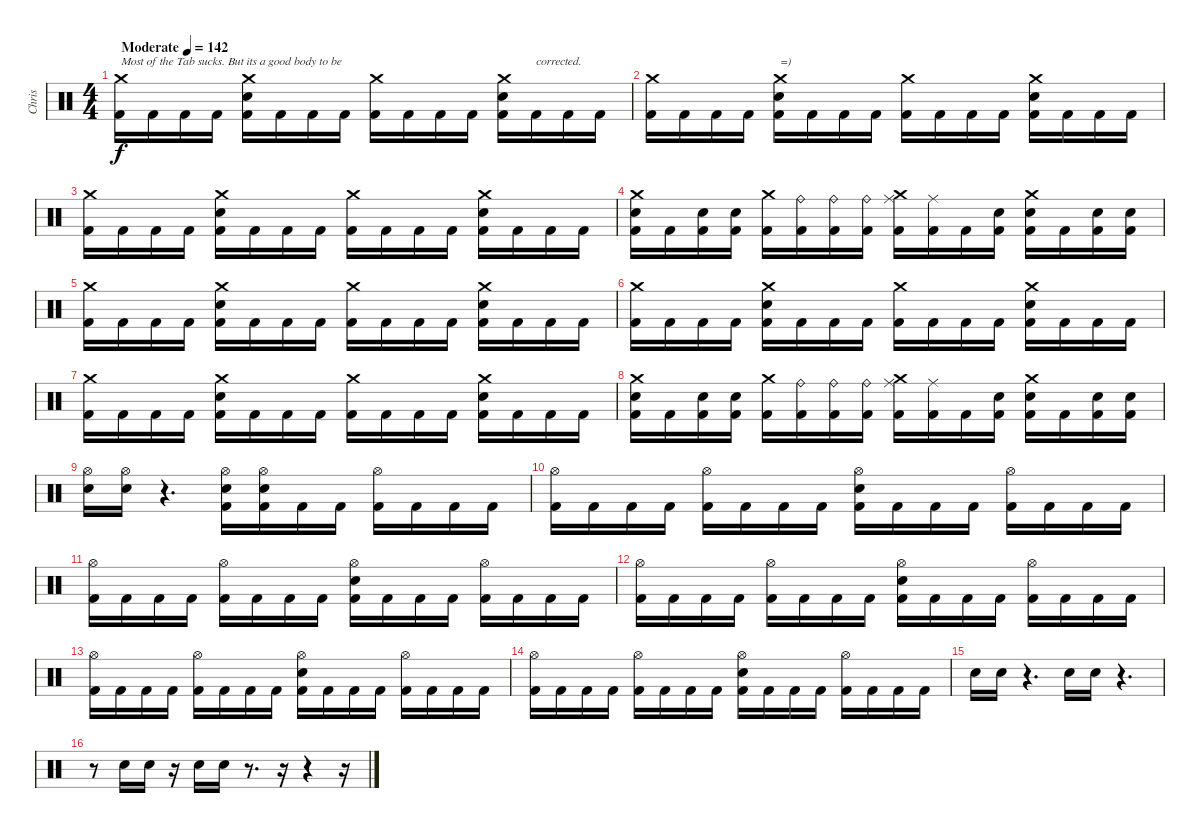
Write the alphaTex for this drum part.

\track ("Chris" "Chris") {instrument percussion}
\staff {score}
\articulation defaults
\ts (4 4)
\tempo (142 "Moderate")
\clef neutral
\ks c
("Crash medium (hit)" "Kick (hit) 2").16{txt "Most of the Tab sucks. But its a good body to be" dy f} "Kick (hit) 2".16 "Kick (hit) 2".16 "Kick (hit) 2".16 ("Crash medium (hit)" "Snare (hit) 2" "Kick (hit) 2").16 "Kick (hit) 2".16 "Kick (hit) 2".16 "Kick (hit) 2".16 ("Crash medium (hit)" "Kick (hit) 2").16 "Kick (hit) 2".16 "Kick (hit) 2".16 "Kick (hit) 2".16 ("Crash medium (hit)" "Snare (hit) 2" "Kick (hit) 2").16 "Kick (hit) 2".16{txt "corrected."} "Kick (hit) 2".16 "Kick (hit) 2".16 |
("Crash medium (hit)" "Kick (hit) 2").16 "Kick (hit) 2".16 "Kick (hit) 2".16 "Kick (hit) 2".16 ("Crash medium (hit)" "Snare (hit) 2" "Kick (hit) 2").16{txt "=)"} "Kick (hit) 2".16 "Kick (hit) 2".16 "Kick (hit) 2".16 ("Crash medium (hit)" "Kick (hit) 2").16 "Kick (hit) 2".16 "Kick (hit) 2".16 "Kick (hit) 2".16 ("Crash medium (hit)" "Snare (hit) 2" "Kick (hit) 2").16 "Kick (hit) 2".16 "Kick (hit) 2".16 "Kick (hit) 2".16 |
("Crash medium (hit)" "Kick (hit) 2").16 "Kick (hit) 2".16 "Kick (hit) 2".16 "Kick (hit) 2".16 ("Crash medium (hit)" "Snare (hit) 2" "Kick (hit) 2").16 "Kick (hit) 2".16 "Kick (hit) 2".16 "Kick (hit) 2".16 ("Crash medium (hit)" "Kick (hit) 2").16 "Kick (hit) 2".16 "Kick (hit) 2".16 "Kick (hit) 2".16 ("Crash medium (hit)" "Snare (hit) 2" "Kick (hit) 2").16 "Kick (hit) 2".16 "Kick (hit) 2".16 "Kick (hit) 2".16 |
("Crash medium (hit)" "Snare (hit) 2" "Kick (hit) 2").16 "Kick (hit) 2".16 ("Snare (hit) 2" "Kick (hit) 2").16 ("Snare (hit) 2" "Kick (hit) 2").16 ("Crash medium (hit)" "Kick (hit) 2").16 ("Ride (bell)" "Kick (hit) 2").16 ("Ride (bell)" "Kick (hit) 2").16 ("Ride (bell)" "Kick (hit) 2").16 ("Crash medium (hit)" "Ride (middle)" "Kick (hit) 2").16 ("Ride (middle)" "Kick (hit) 2").16 "Kick (hit) 2".16 ("Snare (hit) 2" "Kick (hit) 2").16 ("Crash medium (hit)" "Snare (hit) 2" "Kick (hit) 2").16 "Kick (hit) 2".16 ("Snare (hit) 2" "Kick (hit) 2").16 ("Snare (hit) 2" "Kick (hit) 2").16 |
("Crash medium (hit)" "Kick (hit) 2").16 "Kick (hit) 2".16 "Kick (hit) 2".16 "Kick (hit) 2".16 ("Crash medium (hit)" "Snare (hit) 2" "Kick (hit) 2").16 "Kick (hit) 2".16 "Kick (hit) 2".16 "Kick (hit) 2".16 ("Crash medium (hit)" "Kick (hit) 2").16 "Kick (hit) 2".16 "Kick (hit) 2".16 "Kick (hit) 2".16 ("Crash medium (hit)" "Snare (hit) 2" "Kick (hit) 2").16 "Kick (hit) 2".16 "Kick (hit) 2".16 "Kick (hit) 2".16 |
("Crash medium (hit)" "Kick (hit) 2").16 "Kick (hit) 2".16 "Kick (hit) 2".16 "Kick (hit) 2".16 ("Crash medium (hit)" "Snare (hit) 2" "Kick (hit) 2").16 "Kick (hit) 2".16 "Kick (hit) 2".16 "Kick (hit) 2".16 ("Crash medium (hit)" "Kick (hit) 2").16 "Kick (hit) 2".16 "Kick (hit) 2".16 "Kick (hit) 2".16 ("Crash medium (hit)" "Snare (hit) 2" "Kick (hit) 2").16 "Kick (hit) 2".16 "Kick (hit) 2".16 "Kick (hit) 2".16 |
("Crash medium (hit)" "Kick (hit) 2").16 "Kick (hit) 2".16 "Kick (hit) 2".16 "Kick (hit) 2".16 ("Crash medium (hit)" "Snare (hit) 2" "Kick (hit) 2").16 "Kick (hit) 2".16 "Kick (hit) 2".16 "Kick (hit) 2".16 ("Crash medium (hit)" "Kick (hit) 2").16 "Kick (hit) 2".16 "Kick (hit) 2".16 "Kick (hit) 2".16 ("Crash medium (hit)" "Snare (hit) 2" "Kick (hit) 2").16 "Kick (hit) 2".16 "Kick (hit) 2".16 "Kick (hit) 2".16 |
("Crash medium (hit)" "Snare (hit) 2" "Kick (hit) 2").16 "Kick (hit) 2".16 ("Snare (hit) 2" "Kick (hit) 2").16 ("Snare (hit) 2" "Kick (hit) 2").16 ("Crash medium (hit)" "Kick (hit) 2").16 ("Ride (bell)" "Kick (hit) 2").16 ("Ride (bell)" "Kick (hit) 2").16 ("Ride (bell)" "Kick (hit) 2").16 ("Crash medium (hit)" "Ride (middle)" "Kick (hit) 2").16 ("Ride (middle)" "Kick (hit) 2").16 "Kick (hit) 2".16 ("Snare (hit) 2" "Kick (hit) 2").16 ("Crash medium (hit)" "Snare (hit) 2" "Kick (hit) 2").16 "Kick (hit) 2".16 ("Snare (hit) 2" "Kick (hit) 2").16 ("Snare (hit) 2" "Kick (hit) 2").16 |
("Hi-Hat (open)" "Snare (hit) 2").16 ("Hi-Hat (open)" "Snare (hit) 2").16 r.4{d} ("Hi-Hat (open)" "Snare (hit) 2" "Kick (hit) 2").16 ("Hi-Hat (open)" "Snare (hit) 2" "Kick (hit) 2").16 "Kick (hit) 2".16 "Kick (hit) 2".16 ("Hi-Hat (open)" "Kick (hit) 2").16 "Kick (hit) 2".16 "Kick (hit) 2".16 "Kick (hit) 2".16 |
("Hi-Hat (open)" "Kick (hit) 2").16 "Kick (hit) 2".16 "Kick (hit) 2".16 "Kick (hit) 2".16 ("Hi-Hat (open)" "Kick (hit) 2").16 "Kick (hit) 2".16 "Kick (hit) 2".16 "Kick (hit) 2".16 ("Hi-Hat (open)" "Snare (hit) 2" "Kick (hit) 2").16 "Kick (hit) 2".16 "Kick (hit) 2".16 "Kick (hit) 2".16 ("Hi-Hat (open)" "Kick (hit) 2").16 "Kick (hit) 2".16 "Kick (hit) 2".16 "Kick (hit) 2".16 |
("Hi-Hat (open)" "Kick (hit) 2").16 "Kick (hit) 2".16 "Kick (hit) 2".16 "Kick (hit) 2".16 ("Hi-Hat (open)" "Kick (hit) 2").16 "Kick (hit) 2".16 "Kick (hit) 2".16 "Kick (hit) 2".16 ("Hi-Hat (open)" "Snare (hit) 2" "Kick (hit) 2").16 "Kick (hit) 2".16 "Kick (hit) 2".16 "Kick (hit) 2".16 ("Hi-Hat (open)" "Kick (hit) 2").16 "Kick (hit) 2".16 "Kick (hit) 2".16 "Kick (hit) 2".16 |
("Hi-Hat (open)" "Kick (hit) 2").16 "Kick (hit) 2".16 "Kick (hit) 2".16 "Kick (hit) 2".16 ("Hi-Hat (open)" "Kick (hit) 2").16 "Kick (hit) 2".16 "Kick (hit) 2".16 "Kick (hit) 2".16 ("Hi-Hat (open)" "Snare (hit) 2" "Kick (hit) 2").16 "Kick (hit) 2".16 "Kick (hit) 2".16 "Kick (hit) 2".16 ("Hi-Hat (open)" "Kick (hit) 2").16 "Kick (hit) 2".16 "Kick (hit) 2".16 "Kick (hit) 2".16 |
("Hi-Hat (open)" "Kick (hit) 2").16 "Kick (hit) 2".16 "Kick (hit) 2".16 "Kick (hit) 2".16 ("Hi-Hat (open)" "Kick (hit) 2").16 "Kick (hit) 2".16 "Kick (hit) 2".16 "Kick (hit) 2".16 ("Hi-Hat (open)" "Snare (hit) 2" "Kick (hit) 2").16 "Kick (hit) 2".16 "Kick (hit) 2".16 "Kick (hit) 2".16 ("Hi-Hat (open)" "Kick (hit) 2").16 "Kick (hit) 2".16 "Kick (hit) 2".16 "Kick (hit) 2".16 |
("Hi-Hat (open)" "Kick (hit) 2").16 "Kick (hit) 2".16 "Kick (hit) 2".16 "Kick (hit) 2".16 ("Hi-Hat (open)" "Kick (hit) 2").16 "Kick (hit) 2".16 "Kick (hit) 2".16 "Kick (hit) 2".16 ("Hi-Hat (open)" "Snare (hit) 2" "Kick (hit) 2").16 "Kick (hit) 2".16 "Kick (hit) 2".16 "Kick (hit) 2".16 ("Hi-Hat (open)" "Kick (hit) 2").16 "Kick (hit) 2".16 "Kick (hit) 2".16 "Kick (hit) 2".16 |
"Snare (hit) 2".16 "Snare (hit) 2".16 r.4{d} "Snare (hit) 2".16 "Snare (hit) 2".16 r.4{d} |
r.8 "Snare (hit) 2".16 "Snare (hit) 2".16 r.16 "Snare (hit) 2".16 "Snare (hit) 2".16 r.8{d} r.16 r.4 r.16
